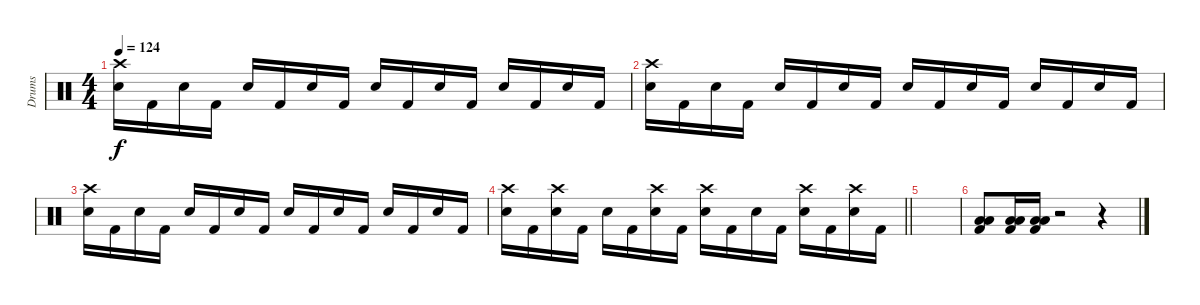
\track ("Drums" "Drums") {instrument percussion}
\staff {score}
\articulation defaults
\ts (4 4)
\tempo 124
\clef neutral
\ks c
("Crash high (hit)" "Electric Snare (hit)").16{dy f} "Kick (hit) 2".16 "Electric Snare (hit)".16 "Kick (hit) 2".16 "Electric Snare (hit)".16 "Kick (hit) 2".16 "Electric Snare (hit)".16 "Kick (hit) 2".16 "Electric Snare (hit)".16 "Kick (hit) 2".16 "Electric Snare (hit)".16 "Kick (hit) 2".16 "Electric Snare (hit)".16 "Kick (hit) 2".16 "Electric Snare (hit)".16 "Kick (hit) 2".16 |
("Crash high (hit)" "Electric Snare (hit)").16 "Kick (hit) 2".16 "Electric Snare (hit)".16 "Kick (hit) 2".16 "Electric Snare (hit)".16 "Kick (hit) 2".16 "Electric Snare (hit)".16 "Kick (hit) 2".16 "Electric Snare (hit)".16 "Kick (hit) 2".16 "Electric Snare (hit)".16 "Kick (hit) 2".16 "Electric Snare (hit)".16 "Kick (hit) 2".16 "Electric Snare (hit)".16 "Kick (hit) 2".16 |
("Crash high (hit)" "Electric Snare (hit)").16 "Kick (hit) 2".16 "Electric Snare (hit)".16 "Kick (hit) 2".16 "Electric Snare (hit)".16 "Kick (hit) 2".16 "Electric Snare (hit)".16 "Kick (hit) 2".16 "Electric Snare (hit)".16 "Kick (hit) 2".16 "Electric Snare (hit)".16 "Kick (hit) 2".16 "Electric Snare (hit)".16 "Kick (hit) 2".16 "Electric Snare (hit)".16 "Kick (hit) 2".16 |
\barLineRight lightlight
("Crash high (hit)" "Electric Snare (hit)").16 "Kick (hit) 2".16 ("Crash high (hit)" "Electric Snare (hit)").16 "Kick (hit) 2".16 "Electric Snare (hit)".16 "Kick (hit) 2".16 ("Crash high (hit)" "Electric Snare (hit)").16 "Kick (hit) 2".16 ("Crash high (hit)" "Electric Snare (hit)").16 "Kick (hit) 2".16 "Electric Snare (hit)".16 "Kick (hit) 2".16 ("Crash high (hit)" "Electric Snare (hit)").16 "Kick (hit) 2".16 ("Crash high (hit)" "Electric Snare (hit)").16 "Kick (hit) 2".16 |
|
("Low Floor Tom (hit)" "Low Floor Tom (hit)" "Kick (hit) 2").8 ("Low Floor Tom (hit)" "Low Floor Tom (hit)" "Kick (hit) 2").16 ("Low Floor Tom (hit)" "Low Floor Tom (hit)" "Kick (hit) 2").16 r.2 r.4
